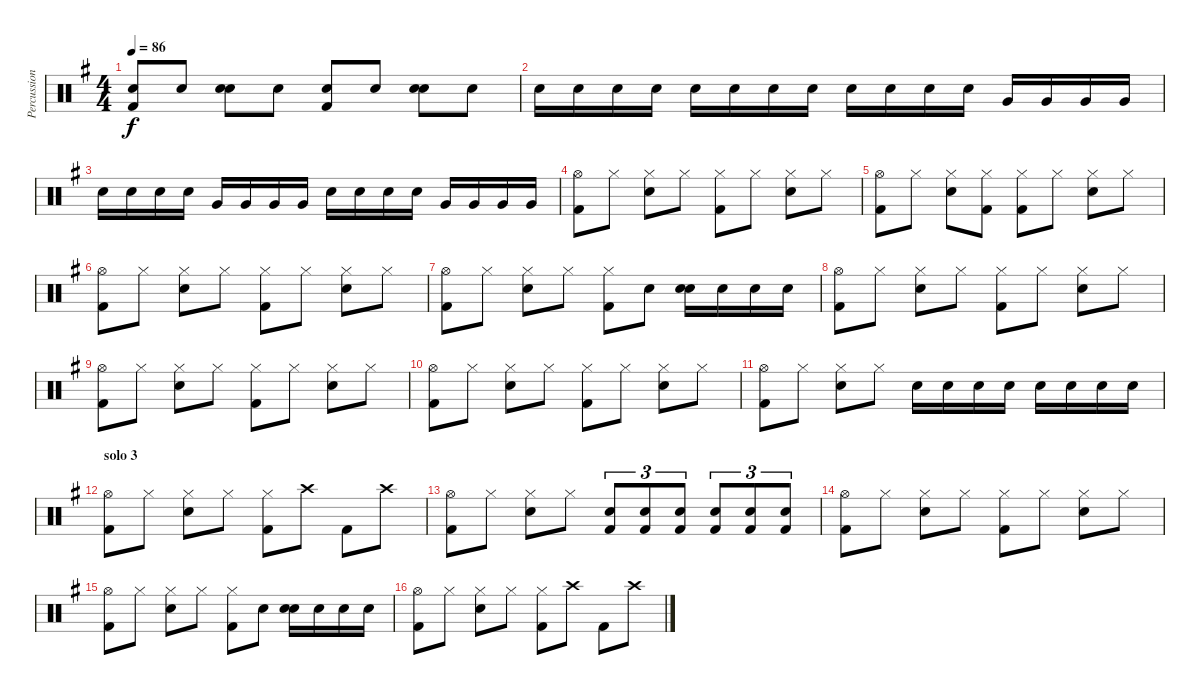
\track ("Percussion" "Percussion") {instrument percussion}
\staff {score}
\articulation defaults
\ts (4 4)
\tempo 86
\clef neutral
\ks eminor
("Snare (hit) 2" "Kick (hit) 2").8{dy f} "Snare (hit) 2".8 ("Snare (hit) 2" "Snare (hit) 2").8 "Snare (hit) 2".8 ("Snare (hit) 2" "Kick (hit) 2").8 "Snare (hit) 2".8 ("Snare (hit) 2" "Snare (hit) 2").8 "Snare (hit) 2".8 |
"Snare (hit) 2".16 "Snare (hit) 2".16 "Snare (hit) 2".16 "Snare (hit) 2".16 "Snare (hit) 2".16 "Snare (hit) 2".16 "Snare (hit) 2".16 "Snare (hit) 2".16 "Electric Snare (hit)".16 "Electric Snare (hit)".16 "Electric Snare (hit)".16 "Electric Snare (hit)".16 "Very Low Tom (hit)".16 "Very Low Tom (hit)".16 "Very Low Tom (hit)".16 "Very Low Tom (hit)".16 |
"Snare (hit) 2".16 "Snare (hit) 2".16 "Snare (hit) 2".16 "Snare (hit) 2".16 "Very Low Tom (hit)".16 "Very Low Tom (hit)".16 "Very Low Tom (hit)".16 "Very Low Tom (hit)".16 "Electric Snare (hit)".16 "Electric Snare (hit)".16 "Electric Snare (hit)".16 "Electric Snare (hit)".16 "Very Low Tom (hit)".16 "Very Low Tom (hit)".16 "Very Low Tom (hit)".16 "Very Low Tom (hit)".16 |
("Hi-Hat (open)" "Kick (hit) 2").8 "Hi-Hat (closed)".8 ("Hi-Hat (closed)" "Snare (hit) 2").8 "Hi-Hat (closed)".8 ("Hi-Hat (closed)" "Kick (hit) 2").8 "Hi-Hat (closed)".8 ("Hi-Hat (closed)" "Snare (hit) 2").8 "Hi-Hat (closed)".8 |
("Hi-Hat (open)" "Kick (hit) 2").8 "Hi-Hat (closed)".8 ("Hi-Hat (closed)" "Snare (hit) 2").8 ("Hi-Hat (closed)" "Kick (hit) 2").8 ("Hi-Hat (closed)" "Kick (hit) 2").8 "Hi-Hat (closed)".8 ("Hi-Hat (closed)" "Snare (hit) 2").8 "Hi-Hat (closed)".8 |
("Hi-Hat (open)" "Kick (hit) 2").8 "Hi-Hat (closed)".8 ("Hi-Hat (closed)" "Snare (hit) 2").8 "Hi-Hat (closed)".8 ("Hi-Hat (closed)" "Kick (hit) 2").8 "Hi-Hat (closed)".8 ("Hi-Hat (closed)" "Snare (hit) 2").8 "Hi-Hat (closed)".8 |
("Hi-Hat (open)" "Kick (hit) 2").8 "Hi-Hat (closed)".8 ("Hi-Hat (closed)" "Snare (hit) 2").8 "Hi-Hat (closed)".8 ("Hi-Hat (closed)" "Kick (hit) 2").8 "Snare (hit) 2".8 ("Snare (hit) 2" "Snare (hit) 2").16 "Snare (hit) 2".16 "Snare (hit) 2".16 "Snare (hit) 2".16 |
("Hi-Hat (open)" "Kick (hit) 2").8 "Hi-Hat (closed)".8 ("Hi-Hat (closed)" "Snare (hit) 2").8 "Hi-Hat (closed)".8 ("Hi-Hat (closed)" "Kick (hit) 2").8 "Hi-Hat (closed)".8 ("Hi-Hat (closed)" "Snare (hit) 2").8 "Hi-Hat (closed)".8 |
("Hi-Hat (open)" "Kick (hit) 2").8 "Hi-Hat (closed)".8 ("Hi-Hat (closed)" "Snare (hit) 2").8 "Hi-Hat (closed)".8 ("Hi-Hat (closed)" "Kick (hit) 2").8 "Hi-Hat (closed)".8 ("Hi-Hat (closed)" "Snare (hit) 2").8 "Hi-Hat (closed)".8 |
("Hi-Hat (open)" "Kick (hit) 2").8 "Hi-Hat (closed)".8 ("Hi-Hat (closed)" "Snare (hit) 2").8 "Hi-Hat (closed)".8 ("Hi-Hat (closed)" "Kick (hit) 2").8 "Hi-Hat (closed)".8 ("Hi-Hat (closed)" "Snare (hit) 2").8 "Hi-Hat (closed)".8 |
("Hi-Hat (open)" "Kick (hit) 2").8 "Hi-Hat (closed)".8 ("Hi-Hat (closed)" "Snare (hit) 2").8 "Hi-Hat (closed)".8 "Snare (hit) 2".16 "Snare (hit) 2".16 "Snare (hit) 2".16 "Snare (hit) 2".16 "Snare (hit) 2".16 "Snare (hit) 2".16 "Snare (hit) 2".16 "Snare (hit) 2".16 |
\section ("" "solo 3")
("Hi-Hat (open)" "Kick (hit) 2").8 "Hi-Hat (closed)".8 ("Hi-Hat (closed)" "Snare (hit) 2").8 "Hi-Hat (closed)".8 ("Hi-Hat (closed)" "Kick (hit) 2").8 "Crash high (hit)".8 "Kick (hit) 2".8 "Crash high (hit)".8 |
("Hi-Hat (open)" "Kick (hit) 2").8 "Hi-Hat (closed)".8 ("Hi-Hat (closed)" "Snare (hit) 2").8 "Hi-Hat (closed)".8 ("Snare (hit) 2" "Kick (hit) 2").8{tu (3 2)} ("Snare (hit) 2" "Kick (hit) 2").8{tu (3 2)} ("Snare (hit) 2" "Kick (hit) 2").8{tu (3 2)} ("Snare (hit) 2" "Kick (hit) 2").8{tu (3 2)} ("Snare (hit) 2" "Kick (hit) 2").8{tu (3 2)} ("Snare (hit) 2" "Kick (hit) 2").8{tu (3 2)} |
("Hi-Hat (open)" "Kick (hit) 2").8 "Hi-Hat (closed)".8 ("Hi-Hat (closed)" "Snare (hit) 2").8 "Hi-Hat (closed)".8 ("Hi-Hat (closed)" "Kick (hit) 2").8 "Hi-Hat (closed)".8 ("Hi-Hat (closed)" "Snare (hit) 2").8 "Hi-Hat (closed)".8 |
("Hi-Hat (open)" "Kick (hit) 2").8 "Hi-Hat (closed)".8 ("Hi-Hat (closed)" "Snare (hit) 2").8 "Hi-Hat (closed)".8 ("Hi-Hat (closed)" "Kick (hit) 2").8 "Snare (hit) 2".8 ("Snare (hit) 2" "Snare (hit) 2").16 "Snare (hit) 2".16 "Snare (hit) 2".16 "Snare (hit) 2".16 |
("Hi-Hat (open)" "Kick (hit) 2").8 "Hi-Hat (closed)".8 ("Hi-Hat (closed)" "Snare (hit) 2").8 "Hi-Hat (closed)".8 ("Hi-Hat (closed)" "Kick (hit) 2").8 "Crash high (hit)".8 "Kick (hit) 2".8 "Crash high (hit)".8
